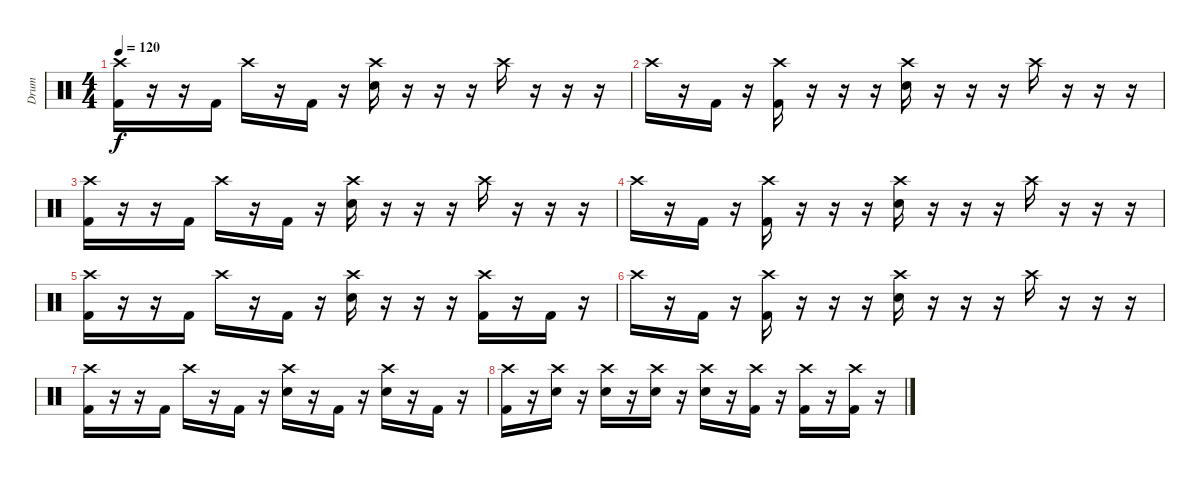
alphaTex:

\track ("Drum" "Drum") {instrument percussion}
\staff {score}
\articulation defaults
\ts (4 4)
\tempo 120
\clef neutral
\ks c
("Crash high (hit)" "Kick (hit) 2").16{dy f} r.16 r.16 "Kick (hit) 2".16 "Crash high (hit)".16 r.16 "Kick (hit) 2".16 r.16 ("Crash high (hit)" "Electric Snare (hit)").16 r.16 r.16 r.16 "Crash high (hit)".16 r.16 r.16 r.16 |
"Crash high (hit)".16 r.16 "Kick (hit) 2".16 r.16 ("Crash high (hit)" "Kick (hit) 2").16 r.16 r.16 r.16 ("Crash high (hit)" "Electric Snare (hit)").16 r.16 r.16 r.16 "Crash high (hit)".16 r.16 r.16 r.16 |
("Crash high (hit)" "Kick (hit) 2").16 r.16 r.16 "Kick (hit) 2".16 "Crash high (hit)".16 r.16 "Kick (hit) 2".16 r.16 ("Crash high (hit)" "Electric Snare (hit)").16 r.16 r.16 r.16 "Crash high (hit)".16 r.16 r.16 r.16 |
"Crash high (hit)".16 r.16 "Kick (hit) 2".16 r.16 ("Crash high (hit)" "Kick (hit) 2").16 r.16 r.16 r.16 ("Crash high (hit)" "Electric Snare (hit)").16 r.16 r.16 r.16 "Crash high (hit)".16 r.16 r.16 r.16 |
("Crash high (hit)" "Kick (hit) 2").16 r.16 r.16 "Kick (hit) 2".16 "Crash high (hit)".16 r.16 "Kick (hit) 2".16 r.16 ("Crash high (hit)" "Electric Snare (hit)").16 r.16 r.16 r.16 ("Crash high (hit)" "Kick (hit) 2").16 r.16 "Kick (hit) 2".16 r.16 |
"Crash high (hit)".16 r.16 "Kick (hit) 2".16 r.16 ("Crash high (hit)" "Kick (hit) 2").16 r.16 r.16 r.16 ("Crash high (hit)" "Electric Snare (hit)").16 r.16 r.16 r.16 "Crash high (hit)".16 r.16 r.16 r.16 |
("Crash high (hit)" "Kick (hit) 2").16 r.16 r.16 "Kick (hit) 2".16 "Crash high (hit)".16 r.16 "Kick (hit) 2".16 r.16 ("Crash high (hit)" "Electric Snare (hit)").16 r.16 "Kick (hit) 2".16 r.16 ("Crash high (hit)" "Electric Snare (hit)").16 r.16 "Kick (hit) 2".16 r.16 |
("Crash high (hit)" "Kick (hit) 2").16 r.16 ("Crash high (hit)" "Electric Snare (hit)").16 r.16 ("Crash high (hit)" "Electric Snare (hit)").16 r.16 ("Crash high (hit)" "Electric Snare (hit)").16 r.16 ("Crash high (hit)" "Electric Snare (hit)").16 r.16 ("Crash high (hit)" "Kick (hit) 2").16 r.16 ("Crash high (hit)" "Kick (hit) 2").16 r.16 ("Crash high (hit)" "Kick (hit) 2").16 r.16
